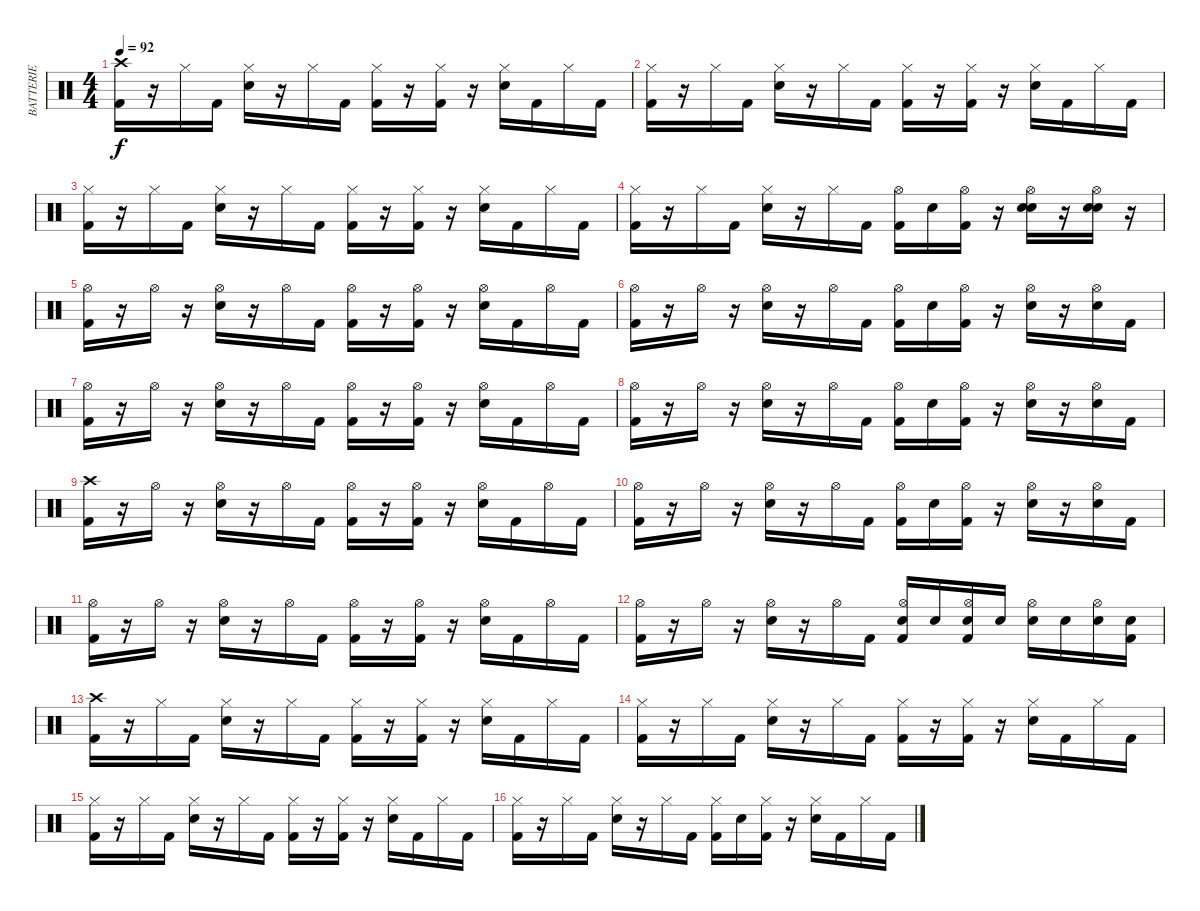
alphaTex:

\track ("BATTERIE" "BATTERIE") {instrument percussion}
\staff {score}
\articulation defaults
\ts (4 4)
\tempo 92
\clef neutral
\ks c
("Crash high (hit)" "Kick (hit) 2").16{dy f} r.16 "Hi-Hat (closed)".16 "Kick (hit) 2".16 ("Hi-Hat (closed)" "Snare (hit) 2").16 r.16 "Hi-Hat (closed)".16 "Kick (hit) 2".16 ("Hi-Hat (closed)" "Kick (hit) 2").16 r.16 ("Hi-Hat (closed)" "Kick (hit) 2").16 r.16 ("Hi-Hat (closed)" "Snare (hit) 2").16 "Kick (hit) 2".16 "Hi-Hat (closed)".16 "Kick (hit) 2".16 |
("Hi-Hat (closed)" "Kick (hit) 2").16 r.16 "Hi-Hat (closed)".16 "Kick (hit) 2".16 ("Hi-Hat (closed)" "Snare (hit) 2").16 r.16 "Hi-Hat (closed)".16 "Kick (hit) 2".16 ("Hi-Hat (closed)" "Kick (hit) 2").16 r.16 ("Hi-Hat (closed)" "Kick (hit) 2").16 r.16 ("Hi-Hat (closed)" "Snare (hit) 2").16 "Kick (hit) 2".16 "Hi-Hat (closed)".16 "Kick (hit) 2".16 |
("Hi-Hat (closed)" "Kick (hit) 2").16 r.16 "Hi-Hat (closed)".16 "Kick (hit) 2".16 ("Hi-Hat (closed)" "Snare (hit) 2").16 r.16 "Hi-Hat (closed)".16 "Kick (hit) 2".16 ("Hi-Hat (closed)" "Kick (hit) 2").16 r.16 ("Hi-Hat (closed)" "Kick (hit) 2").16 r.16 ("Hi-Hat (closed)" "Snare (hit) 2").16 "Kick (hit) 2".16 "Hi-Hat (closed)".16 "Kick (hit) 2".16 |
("Hi-Hat (closed)" "Kick (hit) 2").16 r.16 "Hi-Hat (closed)".16 "Kick (hit) 2".16 ("Hi-Hat (closed)" "Snare (hit) 2").16 r.16 "Hi-Hat (closed)".16 "Kick (hit) 2".16 ("Hi-Hat (open)" "Kick (hit) 2").16 "Electric Snare (hit)".16 ("Hi-Hat (open)" "Kick (hit) 2").16 r.16 ("Hi-Hat (open)" "Electric Snare (hit)" "Snare (hit) 2").16 r.16 ("Hi-Hat (open)" "Electric Snare (hit)" "Snare (hit) 2").16 r.16 |
("Hi-Hat (open)" "Kick (hit) 2").16 r.16 "Hi-Hat (open)".16 r.16 ("Hi-Hat (open)" "Snare (hit) 2").16 r.16 "Hi-Hat (open)".16 "Kick (hit) 2".16 ("Hi-Hat (open)" "Kick (hit) 2").16 r.16 ("Hi-Hat (open)" "Kick (hit) 2").16 r.16 ("Hi-Hat (open)" "Snare (hit) 2").16 "Kick (hit) 2".16 "Hi-Hat (open)".16 "Kick (hit) 2".16 |
("Hi-Hat (open)" "Kick (hit) 2").16 r.16 "Hi-Hat (open)".16 r.16 ("Hi-Hat (open)" "Snare (hit) 2").16 r.16 "Hi-Hat (open)".16 "Kick (hit) 2".16 ("Hi-Hat (open)" "Kick (hit) 2").16 "Snare (hit) 2".16 ("Hi-Hat (open)" "Kick (hit) 2").16 r.16 ("Hi-Hat (open)" "Snare (hit) 2").16 r.16 ("Hi-Hat (open)" "Snare (hit) 2").16 "Kick (hit) 2".16 |
("Hi-Hat (open)" "Kick (hit) 2").16 r.16 "Hi-Hat (open)".16 r.16 ("Hi-Hat (open)" "Snare (hit) 2").16 r.16 "Hi-Hat (open)".16 "Kick (hit) 2".16 ("Hi-Hat (open)" "Kick (hit) 2").16 r.16 ("Hi-Hat (open)" "Kick (hit) 2").16 r.16 ("Hi-Hat (open)" "Snare (hit) 2").16 "Kick (hit) 2".16 "Hi-Hat (open)".16 "Kick (hit) 2".16 |
("Hi-Hat (open)" "Kick (hit) 2").16 r.16 "Hi-Hat (open)".16 r.16 ("Hi-Hat (open)" "Snare (hit) 2").16 r.16 "Hi-Hat (open)".16 "Kick (hit) 2".16 ("Hi-Hat (open)" "Kick (hit) 2").16 "Snare (hit) 2".16 ("Hi-Hat (open)" "Kick (hit) 2").16 r.16 ("Hi-Hat (open)" "Snare (hit) 2").16 r.16 ("Hi-Hat (open)" "Snare (hit) 2").16 "Kick (hit) 2".16 |
("Crash high (hit)" "Kick (hit) 2").16 r.16 "Hi-Hat (open)".16 r.16 ("Hi-Hat (open)" "Snare (hit) 2").16 r.16 "Hi-Hat (open)".16 "Kick (hit) 2".16 ("Hi-Hat (open)" "Kick (hit) 2").16 r.16 ("Hi-Hat (open)" "Kick (hit) 2").16 r.16 ("Hi-Hat (open)" "Snare (hit) 2").16 "Kick (hit) 2".16 "Hi-Hat (open)".16 "Kick (hit) 2".16 |
("Hi-Hat (open)" "Kick (hit) 2").16 r.16 "Hi-Hat (open)".16 r.16 ("Hi-Hat (open)" "Snare (hit) 2").16 r.16 "Hi-Hat (open)".16 "Kick (hit) 2".16 ("Hi-Hat (open)" "Kick (hit) 2").16 "Snare (hit) 2".16 ("Hi-Hat (open)" "Kick (hit) 2").16 r.16 ("Hi-Hat (open)" "Snare (hit) 2").16 r.16 ("Hi-Hat (open)" "Snare (hit) 2").16 "Kick (hit) 2".16 |
("Hi-Hat (open)" "Kick (hit) 2").16 r.16 "Hi-Hat (open)".16 r.16 ("Hi-Hat (open)" "Snare (hit) 2").16 r.16 "Hi-Hat (open)".16 "Kick (hit) 2".16 ("Hi-Hat (open)" "Kick (hit) 2").16 r.16 ("Hi-Hat (open)" "Kick (hit) 2").16 r.16 ("Hi-Hat (open)" "Snare (hit) 2").16 "Kick (hit) 2".16 "Hi-Hat (open)".16 "Kick (hit) 2".16 |
("Hi-Hat (open)" "Kick (hit) 2").16 r.16 "Hi-Hat (open)".16 r.16 ("Hi-Hat (open)" "Snare (hit) 2").16 r.16 "Hi-Hat (open)".16 "Kick (hit) 2".16 ("Hi-Hat (open)" "Electric Snare (hit)" "Kick (hit) 2").16 "Electric Snare (hit)".16 ("Hi-Hat (open)" "Electric Snare (hit)" "Kick (hit) 2").16 "Electric Snare (hit)".16 ("Hi-Hat (open)" "Electric Snare (hit)").16 "Electric Snare (hit)".16 ("Hi-Hat (open)" "Snare (hit) 2").16 ("Snare (hit) 2" "Kick (hit) 2").16 |
("Crash high (hit)" "Kick (hit) 2").16 r.16 "Hi-Hat (closed)".16 "Kick (hit) 2".16 ("Hi-Hat (closed)" "Snare (hit) 2").16 r.16 "Hi-Hat (closed)".16 "Kick (hit) 2".16 ("Hi-Hat (closed)" "Kick (hit) 2").16 r.16 ("Hi-Hat (closed)" "Kick (hit) 2").16 r.16 ("Hi-Hat (closed)" "Snare (hit) 2").16 "Kick (hit) 2".16 "Hi-Hat (closed)".16 "Kick (hit) 2".16 |
("Hi-Hat (closed)" "Kick (hit) 2").16 r.16 "Hi-Hat (closed)".16 "Kick (hit) 2".16 ("Hi-Hat (closed)" "Snare (hit) 2").16 r.16 "Hi-Hat (closed)".16 "Kick (hit) 2".16 ("Hi-Hat (closed)" "Kick (hit) 2").16 r.16 ("Hi-Hat (closed)" "Kick (hit) 2").16 r.16 ("Hi-Hat (closed)" "Snare (hit) 2").16 "Kick (hit) 2".16 "Hi-Hat (closed)".16 "Kick (hit) 2".16 |
("Hi-Hat (closed)" "Kick (hit) 2").16 r.16 "Hi-Hat (closed)".16 "Kick (hit) 2".16 ("Hi-Hat (closed)" "Snare (hit) 2").16 r.16 "Hi-Hat (closed)".16 "Kick (hit) 2".16 ("Hi-Hat (closed)" "Kick (hit) 2").16 r.16 ("Hi-Hat (closed)" "Kick (hit) 2").16 r.16 ("Hi-Hat (closed)" "Snare (hit) 2").16 "Kick (hit) 2".16 "Hi-Hat (closed)".16 "Kick (hit) 2".16 |
("Hi-Hat (closed)" "Kick (hit) 2").16 r.16 "Hi-Hat (closed)".16 "Kick (hit) 2".16 ("Hi-Hat (closed)" "Snare (hit) 2").16 r.16 "Hi-Hat (closed)".16 "Kick (hit) 2".16 ("Hi-Hat (closed)" "Kick (hit) 2").16 "Snare (hit) 2".16 ("Hi-Hat (closed)" "Kick (hit) 2").16 r.16 ("Hi-Hat (closed)" "Snare (hit) 2").16 "Kick (hit) 2".16 "Hi-Hat (closed)".16 "Kick (hit) 2".16
